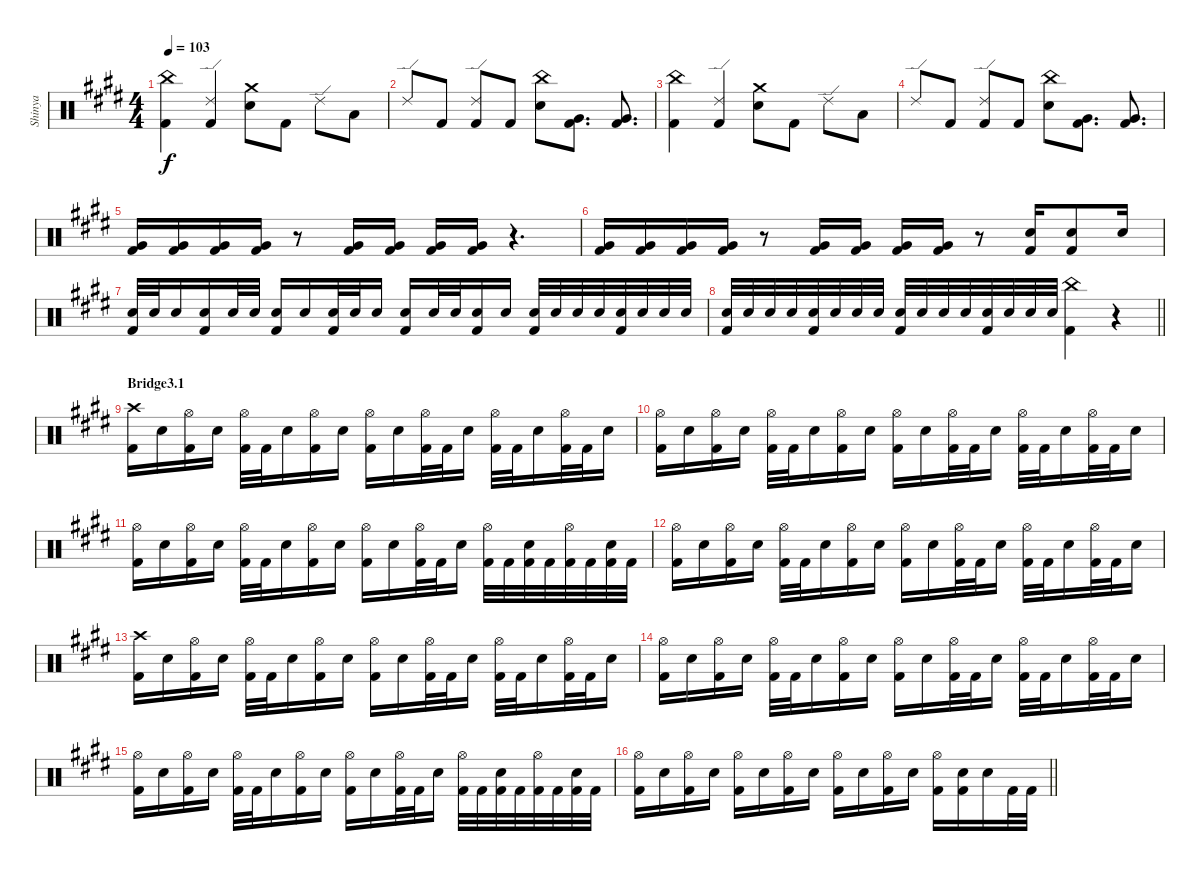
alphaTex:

\track ("Shinya" "Shinya") {instrument percussion}
\staff {score}
\articulation defaults
\ts (4 4)
\tempo 103
\clef neutral
\ks c#minor
("China (hit)" "Kick (hit) 2").4{dy f} ("Ride (edge) 2" "Kick (hit) 2").4 ("Crash medium (hit)" "Snare (hit) 2").8 "Kick (hit) 2".8 "Ride (edge) 2".8 "Low Tom (hit)".8 |
"Ride (edge) 2".8 "Kick (hit) 2".8 ("Ride (edge) 2" "Kick (hit) 2").8 "Kick (hit) 2".8 ("China (hit)" "Snare (hit) 2").8 ("Very Low Tom (hit)" "Kick (hit) 2").8{d} ("Very Low Tom (hit)" "Kick (hit) 2").8{d} |
("China (hit)" "Kick (hit) 2").4 ("Ride (edge) 2" "Kick (hit) 2").4 ("Crash medium (hit)" "Snare (hit) 2").8 "Kick (hit) 2".8 "Ride (edge) 2".8 "Low Tom (hit)".8 |
"Ride (edge) 2".8 "Kick (hit) 2".8 ("Ride (edge) 2" "Kick (hit) 2").8 "Kick (hit) 2".8 ("China (hit)" "Snare (hit) 2").8 ("Very Low Tom (hit)" "Kick (hit) 2").8{d} ("Very Low Tom (hit)" "Kick (hit) 2").8{d} |
("Very Low Tom (hit)" "Kick (hit) 2").16 ("Very Low Tom (hit)" "Kick (hit) 2").16 ("Very Low Tom (hit)" "Kick (hit) 2").16 ("Very Low Tom (hit)" "Kick (hit) 2").16 r.8 ("Very Low Tom (hit)" "Kick (hit) 2").16 ("Very Low Tom (hit)" "Kick (hit) 2").16 ("Very Low Tom (hit)" "Kick (hit) 2").16 ("Very Low Tom (hit)" "Kick (hit) 2").16 r.4{d} |
("Very Low Tom (hit)" "Kick (hit) 2").16 ("Very Low Tom (hit)" "Kick (hit) 2").16 ("Very Low Tom (hit)" "Kick (hit) 2").16 ("Very Low Tom (hit)" "Kick (hit) 2").16 r.8 ("Very Low Tom (hit)" "Kick (hit) 2").16 ("Very Low Tom (hit)" "Kick (hit) 2").16 ("Very Low Tom (hit)" "Kick (hit) 2").16 ("Very Low Tom (hit)" "Kick (hit) 2").16 r.8 ("Snare (hit) 2" "Kick (hit) 2").16 ("Snare (hit) 2" "Kick (hit) 2").8 "Snare (hit) 2".16 |
("Snare (hit) 2" "Kick (hit) 2").32 "Snare (hit) 2".32 "Snare (hit) 2".16 ("Snare (hit) 2" "Kick (hit) 2").16 "Snare (hit) 2".32 "Snare (hit) 2".32 ("Snare (hit) 2" "Kick (hit) 2").16 "Snare (hit) 2".16 ("Snare (hit) 2" "Kick (hit) 2").32 "Snare (hit) 2".32 "Snare (hit) 2".16 ("Snare (hit) 2" "Kick (hit) 2").16 "Snare (hit) 2".32 "Snare (hit) 2".32 ("Snare (hit) 2" "Kick (hit) 2").16 "Snare (hit) 2".16 ("Snare (hit) 2" "Kick (hit) 2").32 "Snare (hit) 2".32 "Snare (hit) 2".32 "Snare (hit) 2".32 ("Snare (hit) 2" "Kick (hit) 2").32 "Snare (hit) 2".32 "Snare (hit) 2".32 "Snare (hit) 2".32 |
\barLineRight lightlight
("Snare (hit) 2" "Kick (hit) 2").32 "Snare (hit) 2".32 "Snare (hit) 2".32 "Snare (hit) 2".32 ("Snare (hit) 2" "Kick (hit) 2").32 "Snare (hit) 2".32 "Snare (hit) 2".32 "Snare (hit) 2".32 ("Snare (hit) 2" "Kick (hit) 2").32 "Snare (hit) 2".32 "Snare (hit) 2".32 "Snare (hit) 2".32 ("Snare (hit) 2" "Kick (hit) 2").32 "Snare (hit) 2".32 "Snare (hit) 2".32 "Snare (hit) 2".32 ("China (hit)" "Kick (hit) 2").4 r.4 |
\section ("" "Bridge3.1")
("Crash high (hit)" "Kick (hit) 2").16 "Snare (hit) 2".16 ("Hi-Hat (open)" "Kick (hit) 2").16 "Snare (hit) 2".16 ("Hi-Hat (open)" "Kick (hit) 2").32 "Kick (hit) 2".32 "Snare (hit) 2".16 ("Hi-Hat (open)" "Kick (hit) 2").16 "Snare (hit) 2".16 ("Hi-Hat (open)" "Kick (hit) 2").16 "Snare (hit) 2".16 ("Hi-Hat (open)" "Kick (hit) 2").32 "Kick (hit) 2".32 "Snare (hit) 2".16 ("Hi-Hat (open)" "Kick (hit) 2").32 "Kick (hit) 2".32 "Snare (hit) 2".16 ("Hi-Hat (open)" "Kick (hit) 2").32 "Kick (hit) 2".32 "Snare (hit) 2".16 |
("Hi-Hat (open)" "Kick (hit) 2").16 "Snare (hit) 2".16 ("Hi-Hat (open)" "Kick (hit) 2").16 "Snare (hit) 2".16 ("Hi-Hat (open)" "Kick (hit) 2").32 "Kick (hit) 2".32 "Snare (hit) 2".16 ("Hi-Hat (open)" "Kick (hit) 2").16 "Snare (hit) 2".16 ("Hi-Hat (open)" "Kick (hit) 2").16 "Snare (hit) 2".16 ("Hi-Hat (open)" "Kick (hit) 2").32 "Kick (hit) 2".32 "Snare (hit) 2".16 ("Hi-Hat (open)" "Kick (hit) 2").32 "Kick (hit) 2".32 "Snare (hit) 2".16 ("Hi-Hat (open)" "Kick (hit) 2").32 "Kick (hit) 2".32 "Snare (hit) 2".16 |
("Hi-Hat (open)" "Kick (hit) 2").16 "Snare (hit) 2".16 ("Hi-Hat (open)" "Kick (hit) 2").16 "Snare (hit) 2".16 ("Hi-Hat (open)" "Kick (hit) 2").32 "Kick (hit) 2".32 "Snare (hit) 2".16 ("Hi-Hat (open)" "Kick (hit) 2").16 "Snare (hit) 2".16 ("Hi-Hat (open)" "Kick (hit) 2").16 "Snare (hit) 2".16 ("Hi-Hat (open)" "Kick (hit) 2").32 "Kick (hit) 2".32 "Snare (hit) 2".16 ("Hi-Hat (open)" "Kick (hit) 2").32 "Kick (hit) 2".32 ("Snare (hit) 2" "Kick (hit) 2").32 "Kick (hit) 2".32 ("Hi-Hat (open)" "Kick (hit) 2").32 "Kick (hit) 2".32 ("Snare (hit) 2" "Kick (hit) 2").32 "Kick (hit) 2".32 |
("Hi-Hat (open)" "Kick (hit) 2").16 "Snare (hit) 2".16 ("Hi-Hat (open)" "Kick (hit) 2").16 "Snare (hit) 2".16 ("Hi-Hat (open)" "Kick (hit) 2").32 "Kick (hit) 2".32 "Snare (hit) 2".16 ("Hi-Hat (open)" "Kick (hit) 2").16 "Snare (hit) 2".16 ("Hi-Hat (open)" "Kick (hit) 2").16 "Snare (hit) 2".16 ("Hi-Hat (open)" "Kick (hit) 2").32 "Kick (hit) 2".32 "Snare (hit) 2".16 ("Hi-Hat (open)" "Kick (hit) 2").32 "Kick (hit) 2".32 "Snare (hit) 2".16 ("Hi-Hat (open)" "Kick (hit) 2").32 "Kick (hit) 2".32 "Snare (hit) 2".16 |
("Crash high (hit)" "Kick (hit) 2").16 "Snare (hit) 2".16 ("Hi-Hat (open)" "Kick (hit) 2").16 "Snare (hit) 2".16 ("Hi-Hat (open)" "Kick (hit) 2").32 "Kick (hit) 2".32 "Snare (hit) 2".16 ("Hi-Hat (open)" "Kick (hit) 2").16 "Snare (hit) 2".16 ("Hi-Hat (open)" "Kick (hit) 2").16 "Snare (hit) 2".16 ("Hi-Hat (open)" "Kick (hit) 2").32 "Kick (hit) 2".32 "Snare (hit) 2".16 ("Hi-Hat (open)" "Kick (hit) 2").32 "Kick (hit) 2".32 "Snare (hit) 2".16 ("Hi-Hat (open)" "Kick (hit) 2").32 "Kick (hit) 2".32 "Snare (hit) 2".16 |
("Hi-Hat (open)" "Kick (hit) 2").16 "Snare (hit) 2".16 ("Hi-Hat (open)" "Kick (hit) 2").16 "Snare (hit) 2".16 ("Hi-Hat (open)" "Kick (hit) 2").32 "Kick (hit) 2".32 "Snare (hit) 2".16 ("Hi-Hat (open)" "Kick (hit) 2").16 "Snare (hit) 2".16 ("Hi-Hat (open)" "Kick (hit) 2").16 "Snare (hit) 2".16 ("Hi-Hat (open)" "Kick (hit) 2").32 "Kick (hit) 2".32 "Snare (hit) 2".16 ("Hi-Hat (open)" "Kick (hit) 2").32 "Kick (hit) 2".32 "Snare (hit) 2".16 ("Hi-Hat (open)" "Kick (hit) 2").32 "Kick (hit) 2".32 "Snare (hit) 2".16 |
("Hi-Hat (open)" "Kick (hit) 2").16 "Snare (hit) 2".16 ("Hi-Hat (open)" "Kick (hit) 2").16 "Snare (hit) 2".16 ("Hi-Hat (open)" "Kick (hit) 2").32 "Kick (hit) 2".32 "Snare (hit) 2".16 ("Hi-Hat (open)" "Kick (hit) 2").16 "Snare (hit) 2".16 ("Hi-Hat (open)" "Kick (hit) 2").16 "Snare (hit) 2".16 ("Hi-Hat (open)" "Kick (hit) 2").32 "Kick (hit) 2".32 "Snare (hit) 2".16 ("Hi-Hat (open)" "Kick (hit) 2").32 "Kick (hit) 2".32 ("Snare (hit) 2" "Kick (hit) 2").32 "Kick (hit) 2".32 ("Hi-Hat (open)" "Kick (hit) 2").32 "Kick (hit) 2".32 ("Snare (hit) 2" "Kick (hit) 2").32 "Kick (hit) 2".32 |
\barLineRight lightlight
("Hi-Hat (open)" "Kick (hit) 2").16 "Snare (hit) 2".16 ("Hi-Hat (open)" "Kick (hit) 2").16 "Snare (hit) 2".16 ("Hi-Hat (open)" "Kick (hit) 2").16 "Snare (hit) 2".16 ("Hi-Hat (open)" "Kick (hit) 2").16 "Snare (hit) 2".16 ("Hi-Hat (open)" "Kick (hit) 2").16 "Snare (hit) 2".16 ("Hi-Hat (open)" "Kick (hit) 2").16 "Snare (hit) 2".16 ("Hi-Hat (open)" "Kick (hit) 2").16 ("Snare (hit) 2" "Kick (hit) 2").16 "Snare (hit) 2".16 "Kick (hit) 2".32 "Kick (hit) 2".32
